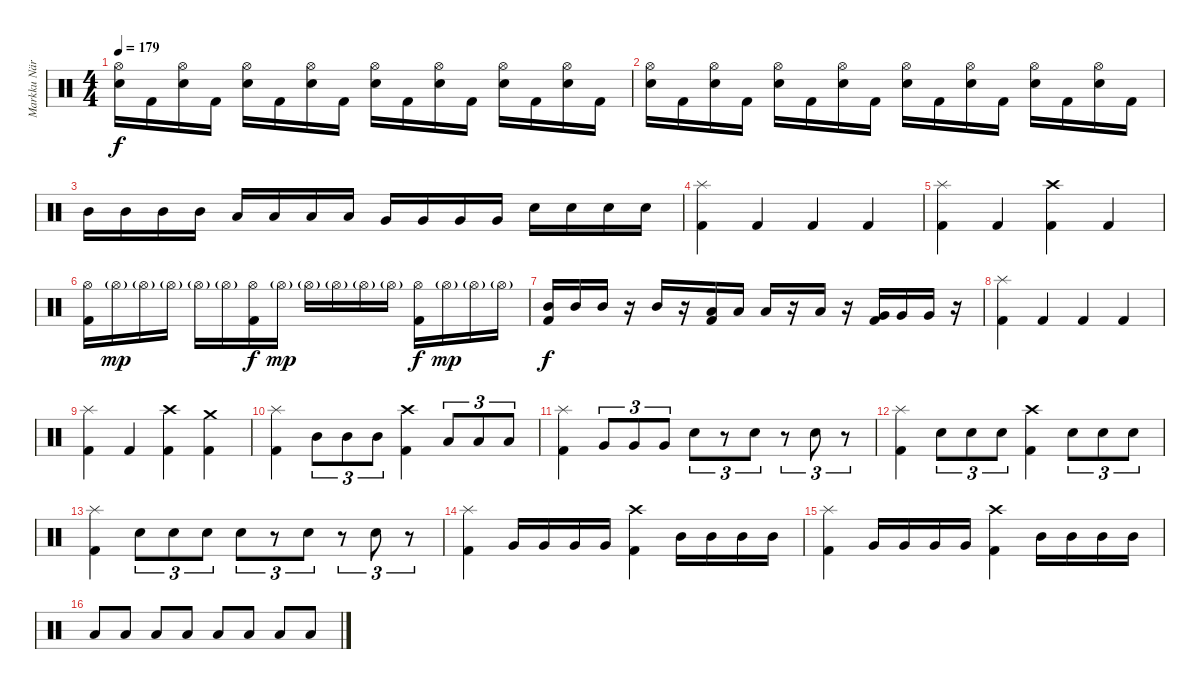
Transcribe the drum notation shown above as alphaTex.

\track ("Markku Näreneva (Drums)" "Markku När") {instrument percussion}
\staff {score}
\articulation defaults
\ts (4 4)
\tempo 179
\clef neutral
\ks c
("Snare (hit) 2" "Hi-Hat (open)").16{dy f} "Kick (hit) 2".16 ("Snare (hit) 2" "Hi-Hat (open)").16 "Kick (hit) 2".16 ("Snare (hit) 2" "Hi-Hat (open)").16 "Kick (hit) 2".16 ("Snare (hit) 2" "Hi-Hat (open)").16 "Kick (hit) 2".16 ("Snare (hit) 2" "Hi-Hat (open)").16 "Kick (hit) 2".16 ("Snare (hit) 2" "Hi-Hat (open)").16 "Kick (hit) 2".16 ("Snare (hit) 2" "Hi-Hat (open)").16 "Kick (hit) 2".16 ("Snare (hit) 2" "Hi-Hat (open)").16 "Kick (hit) 2".16 |
("Snare (hit) 2" "Hi-Hat (open)").16 "Kick (hit) 2".16 ("Snare (hit) 2" "Hi-Hat (open)").16 "Kick (hit) 2".16 ("Snare (hit) 2" "Hi-Hat (open)").16 "Kick (hit) 2".16 ("Snare (hit) 2" "Hi-Hat (open)").16 "Kick (hit) 2".16 ("Snare (hit) 2" "Hi-Hat (open)").16 "Kick (hit) 2".16 ("Snare (hit) 2" "Hi-Hat (open)").16 "Kick (hit) 2".16 ("Snare (hit) 2" "Hi-Hat (open)").16 "Kick (hit) 2".16 ("Snare (hit) 2" "Hi-Hat (open)").16 "Kick (hit) 2".16 |
"Mid Tom (hit)".16 "Mid Tom (hit)".16 "Mid Tom (hit)".16 "Mid Tom (hit)".16 "Low Tom (hit)".16 "Low Tom (hit)".16 "Low Tom (hit)".16 "Low Tom (hit)".16 "Very Low Tom (hit)".16 "Very Low Tom (hit)".16 "Very Low Tom (hit)".16 "Very Low Tom (hit)".16 "Snare (hit) 2".16 "Snare (hit) 2".16 "Snare (hit) 2".16 "Snare (hit) 2".16 |
("Kick (hit) 2" "Splash (hit)").4 "Kick (hit) 2".4 "Kick (hit) 2".4 "Kick (hit) 2".4 |
("Kick (hit) 2" "Splash (hit)").4 "Kick (hit) 2".4 ("Kick (hit) 2" "Crash high (hit)").4 "Kick (hit) 2".4 |
("Kick (hit) 2" "Hi-Hat (open)").16 "Hi-Hat (open)"{g}.16{dy mp} "Hi-Hat (open)"{g}.16 "Hi-Hat (open)"{g}.16 "Hi-Hat (open)"{g}.16 "Hi-Hat (open)"{g}.16 ("Kick (hit) 2" "Hi-Hat (open)").16{dy f} "Hi-Hat (open)"{g}.16{dy mp} "Hi-Hat (open)"{g}.16 "Hi-Hat (open)"{g}.16 "Hi-Hat (open)"{g}.16 "Hi-Hat (open)"{g}.16 ("Kick (hit) 2" "Hi-Hat (open)").16{dy f} "Hi-Hat (open)"{g}.16{dy mp} "Hi-Hat (open)"{g}.16 "Hi-Hat (open)"{g}.16 |
("Kick (hit) 2" "Mid Tom (hit)").16{dy f} "Mid Tom (hit)".16 "Mid Tom (hit)".16 r.16 "Mid Tom (hit)".16 r.16 ("Kick (hit) 2" "Low Tom (hit)").16 "Low Tom (hit)".16 "Low Tom (hit)".16 r.16 "Low Tom (hit)".16 r.16 ("Kick (hit) 2" "Very Low Tom (hit)").16 "Very Low Tom (hit)".16 "Very Low Tom (hit)".16 r.16 |
("Kick (hit) 2" "Splash (hit)").4 "Kick (hit) 2".4 "Kick (hit) 2".4 "Kick (hit) 2".4 |
("Kick (hit) 2" "Splash (hit)").4 "Kick (hit) 2".4 ("Kick (hit) 2" "Crash high (hit)").4 ("Kick (hit) 2" "Crash medium (hit)").4 |
("Kick (hit) 2" "Splash (hit)").4 "Mid Tom (hit)".8{tu (3 2)} "Mid Tom (hit)".8{tu (3 2)} "Mid Tom (hit)".8{tu (3 2)} ("Kick (hit) 2" "Crash high (hit)").4 "Low Tom (hit)".8{tu (3 2)} "Low Tom (hit)".8{tu (3 2)} "Low Tom (hit)".8{tu (3 2)} |
("Kick (hit) 2" "Splash (hit)").4 "Very Low Tom (hit)".8{tu (3 2)} "Very Low Tom (hit)".8{tu (3 2)} "Very Low Tom (hit)".8{tu (3 2)} "Snare (hit) 2".8{tu (3 2)} r.8{tu (3 2)} "Snare (hit) 2".8{tu (3 2)} r.8{tu (3 2)} "Snare (hit) 2".8{tu (3 2)} r.8{tu (3 2)} |
("Kick (hit) 2" "Splash (hit)").4 "Snare (hit) 2".8{tu (3 2)} "Snare (hit) 2".8{tu (3 2)} "Snare (hit) 2".8{tu (3 2)} ("Kick (hit) 2" "Crash high (hit)").4 "Snare (hit) 2".8{tu (3 2)} "Snare (hit) 2".8{tu (3 2)} "Snare (hit) 2".8{tu (3 2)} |
("Kick (hit) 2" "Splash (hit)").4 "Snare (hit) 2".8{tu (3 2)} "Snare (hit) 2".8{tu (3 2)} "Snare (hit) 2".8{tu (3 2)} "Snare (hit) 2".8{tu (3 2)} r.8{tu (3 2)} "Snare (hit) 2".8{tu (3 2)} r.8{tu (3 2)} "Snare (hit) 2".8{tu (3 2)} r.8{tu (3 2)} |
("Kick (hit) 2" "Splash (hit)").4 "Very Low Tom (hit)".16 "Very Low Tom (hit)".16 "Very Low Tom (hit)".16 "Very Low Tom (hit)".16 ("Kick (hit) 2" "Crash high (hit)").4 "Mid Tom (hit)".16 "Mid Tom (hit)".16 "Mid Tom (hit)".16 "Mid Tom (hit)".16 |
("Kick (hit) 2" "Splash (hit)").4 "Very Low Tom (hit)".16 "Very Low Tom (hit)".16 "Very Low Tom (hit)".16 "Very Low Tom (hit)".16 ("Kick (hit) 2" "Crash high (hit)").4 "Mid Tom (hit)".16 "Mid Tom (hit)".16 "Mid Tom (hit)".16 "Mid Tom (hit)".16 |
"Low Tom (hit)".8 "Low Tom (hit)".8 "Low Tom (hit)".8 "Low Tom (hit)".8 "Low Tom (hit)".8 "Low Tom (hit)".8 "Low Tom (hit)".8 "Low Tom (hit)".8
